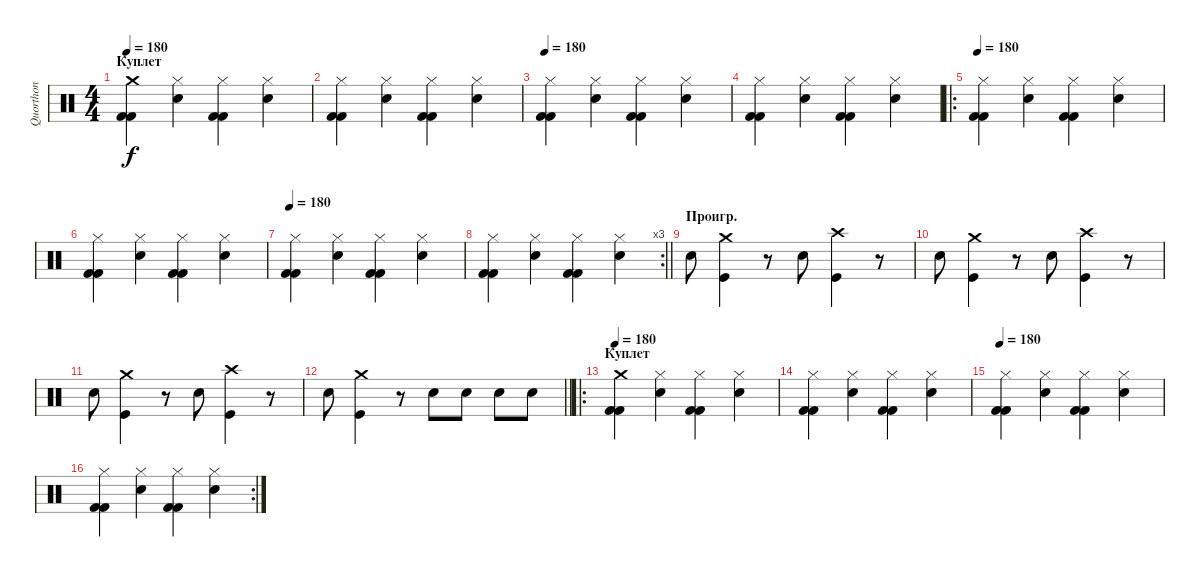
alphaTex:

\track ("Quorthon" "Quorthon") {instrument percussion}
\staff {score}
\articulation defaults
\ts (4 4)
\section ("" "Куплет")
\tempo 180
\clef neutral
\ks c
("Crash medium (hit)" "Kick (hit) 2" "Kick (hit) 2").4{dy f} ("Hi-Hat (closed)" "Electric Snare (hit)").4 ("Hi-Hat (closed)" "Kick (hit) 2" "Kick (hit) 2").4 ("Hi-Hat (closed)" "Electric Snare (hit)").4 |
("Hi-Hat (closed)" "Kick (hit) 2" "Kick (hit) 2").4 ("Hi-Hat (closed)" "Electric Snare (hit)").4 ("Hi-Hat (closed)" "Kick (hit) 2" "Kick (hit) 2").4 ("Hi-Hat (closed)" "Electric Snare (hit)").4 |
\tempo 180
("Hi-Hat (closed)" "Kick (hit) 2" "Kick (hit) 2").4 ("Hi-Hat (closed)" "Electric Snare (hit)").4 ("Hi-Hat (closed)" "Kick (hit) 2" "Kick (hit) 2").4 ("Hi-Hat (closed)" "Electric Snare (hit)").4 |
("Hi-Hat (closed)" "Kick (hit) 2" "Kick (hit) 2").4 ("Hi-Hat (closed)" "Electric Snare (hit)").4 ("Hi-Hat (closed)" "Kick (hit) 2" "Kick (hit) 2").4 ("Hi-Hat (closed)" "Electric Snare (hit)").4 |
\ro
\tempo 180
("Hi-Hat (closed)" "Kick (hit) 2" "Kick (hit) 2").4 ("Hi-Hat (closed)" "Electric Snare (hit)").4 ("Hi-Hat (closed)" "Kick (hit) 2" "Kick (hit) 2").4 ("Hi-Hat (closed)" "Electric Snare (hit)").4 |
("Hi-Hat (closed)" "Kick (hit) 2" "Kick (hit) 2").4 ("Hi-Hat (closed)" "Electric Snare (hit)").4 ("Hi-Hat (closed)" "Kick (hit) 2" "Kick (hit) 2").4 ("Hi-Hat (closed)" "Electric Snare (hit)").4 |
\tempo 180
("Hi-Hat (closed)" "Kick (hit) 2" "Kick (hit) 2").4 ("Hi-Hat (closed)" "Electric Snare (hit)").4 ("Hi-Hat (closed)" "Kick (hit) 2" "Kick (hit) 2").4 ("Hi-Hat (closed)" "Electric Snare (hit)").4 |
\rc 3
\barLineRight lightlight
("Hi-Hat (closed)" "Kick (hit) 2" "Kick (hit) 2").4 ("Hi-Hat (closed)" "Electric Snare (hit)").4 ("Hi-Hat (closed)" "Kick (hit) 2" "Kick (hit) 2").4 ("Hi-Hat (closed)" "Electric Snare (hit)").4 |
\section ("" "Проигр.")
"Electric Snare (hit)".8 ("Crash medium (hit)" "Kick (hit)").4 r.8 "Electric Snare (hit)".8 ("Crash high (hit)" "Kick (hit)").4 r.8 |
"Electric Snare (hit)".8 ("Crash medium (hit)" "Kick (hit)").4 r.8 "Electric Snare (hit)".8 ("Crash high (hit)" "Kick (hit)").4 r.8 |
"Electric Snare (hit)".8 ("Crash medium (hit)" "Kick (hit)").4 r.8 "Electric Snare (hit)".8 ("Crash high (hit)" "Kick (hit)").4 r.8 |
\barLineRight lightlight "Electric Snare (hit)".8
("Crash medium (hit)" "Kick (hit)").4 r.8 "Electric Snare (hit)".8 "Electric Snare (hit)".8 "Electric Snare (hit)".8 "Electric Snare (hit)".8 |
\ro
\section ("" "Куплет")
\tempo 180
("Crash medium (hit)" "Kick (hit) 2" "Kick (hit) 2").4 ("Hi-Hat (closed)" "Electric Snare (hit)").4 ("Hi-Hat (closed)" "Kick (hit) 2" "Kick (hit) 2").4 ("Hi-Hat (closed)" "Electric Snare (hit)").4 |
("Hi-Hat (closed)" "Kick (hit) 2" "Kick (hit) 2").4 ("Hi-Hat (closed)" "Electric Snare (hit)").4 ("Hi-Hat (closed)" "Kick (hit) 2" "Kick (hit) 2").4 ("Hi-Hat (closed)" "Electric Snare (hit)").4 |
\tempo 180
("Hi-Hat (closed)" "Kick (hit) 2" "Kick (hit) 2").4 ("Hi-Hat (closed)" "Electric Snare (hit)").4 ("Hi-Hat (closed)" "Kick (hit) 2" "Kick (hit) 2").4 ("Hi-Hat (closed)" "Electric Snare (hit)").4 |
\rc 2
("Hi-Hat (closed)" "Kick (hit) 2" "Kick (hit) 2").4 ("Hi-Hat (closed)" "Electric Snare (hit)").4 ("Hi-Hat (closed)" "Kick (hit) 2" "Kick (hit) 2").4 ("Hi-Hat (closed)" "Electric Snare (hit)").4
